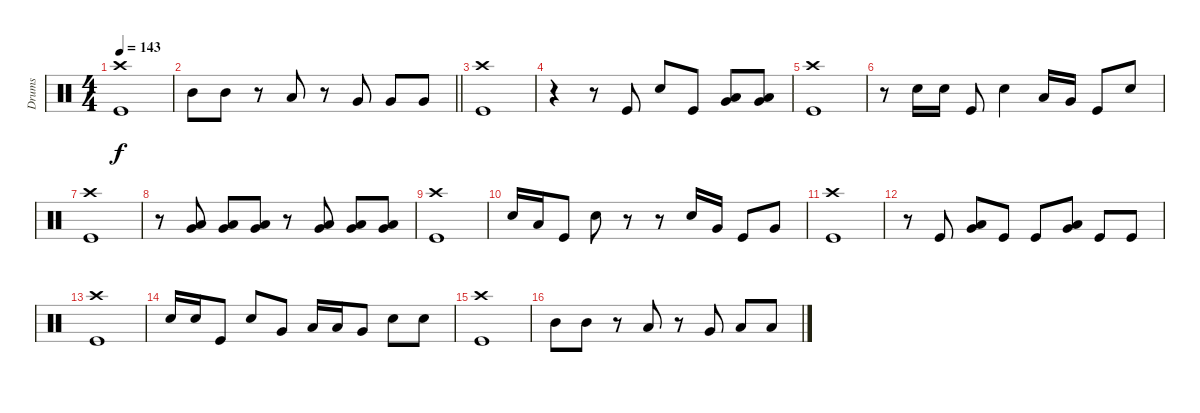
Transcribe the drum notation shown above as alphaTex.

\track ("Drums" "Drums") {instrument percussion}
\staff {score}
\articulation defaults
\ts (4 4)
\tempo 143
\clef neutral
\ks c
("Crash high (hit)" "Kick (hit)").1{dy f} |
\barLineRight lightlight "Mid Tom (hit)".8 "Mid Tom (hit)".8
r.8 "Low Tom (hit)".8 r.8 "Very Low Tom (hit)".8 "Very Low Tom (hit)".8 "Very Low Tom (hit)".8 |
\section ("" "")
("Crash high (hit)" "Kick (hit)").1 |
r.4 r.8 "Kick (hit)".8 "Snare (hit) 2".8 "Kick (hit)".8 ("Very Low Tom (hit)" "Low Floor Tom (hit)").8 ("Very Low Tom (hit)" "Low Floor Tom (hit)").8 |
("Crash high (hit)" "Kick (hit)").1 |
r.8 "Snare (hit) 2".16 "Snare (hit) 2".16 "Kick (hit)".8 "Snare (hit) 2".4 "Low Tom (hit)".16 "Very Low Tom (hit)".16 "Kick (hit)".8 "Snare (hit) 2".8 |
("Crash high (hit)" "Kick (hit)").1 |
r.8 ("Low Tom (hit)" "Very Low Tom (hit)").8 ("Low Tom (hit)" "Very Low Tom (hit)").8 ("Low Tom (hit)" "Very Low Tom (hit)").8 r.8 ("Very Low Tom (hit)" "Low Floor Tom (hit)").8 ("Very Low Tom (hit)" "Low Floor Tom (hit)").8 ("Very Low Tom (hit)" "Low Floor Tom (hit)").8 |
("Crash high (hit)" "Kick (hit)").1 |
"Snare (hit) 2".16 "Low Tom (hit)".16 "Kick (hit)".8 "Snare (hit) 2".8 r.8 r.8 "Snare (hit) 2".16 "Very Low Tom (hit)".16 "Kick (hit)".8 "Very Low Tom (hit)".8 |
("Crash high (hit)" "Kick (hit)").1 |
r.8 "Kick (hit)".8 ("Low Tom (hit)" "Very Low Tom (hit)").8 "Kick (hit)".8 "Kick (hit)".8 ("Very Low Tom (hit)" "Low Floor Tom (hit)").8 "Kick (hit)".8 "Kick (hit)".8 |
("Crash high (hit)" "Kick (hit)").1 |
"Snare (hit) 2".16 "Snare (hit) 2".16 "Kick (hit)".8 "Snare (hit) 2".8 "Very Low Tom (hit)".8 "Low Tom (hit)".16 "Low Tom (hit)".16 "Very Low Tom (hit)".8 "Snare (hit) 2".8 "Snare (hit) 2".8 |
("Crash high (hit)" "Kick (hit)").1 |
"Mid Tom (hit)".8 "Mid Tom (hit)".8 r.8 "Low Tom (hit)".8 r.8 "Very Low Tom (hit)".8 "Low Tom (hit)".8 "Low Tom (hit)".8
